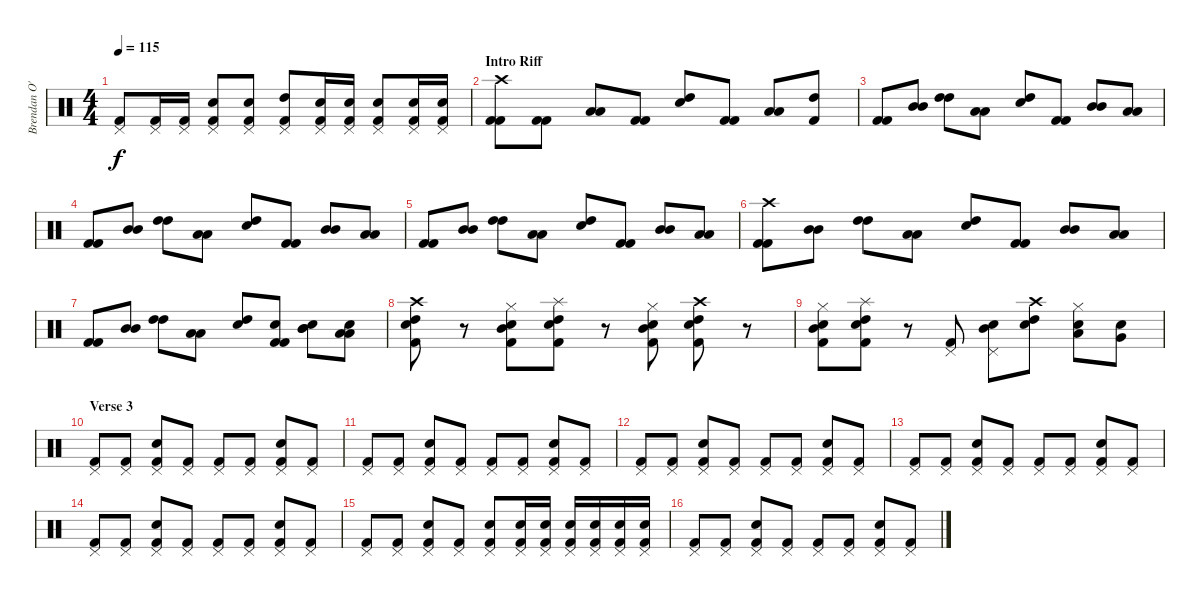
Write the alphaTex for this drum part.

\track ("Brendan O'Neill" "Brendan O'") {instrument percussion}
\staff {score}
\articulation defaults
\ts (4 4)
\tempo 115
\clef neutral
\ks c
("Pedal Hi-Hat (hit)" "Kick (hit) 2").8{dy f} ("Pedal Hi-Hat (hit)" "Kick (hit) 2").16 ("Pedal Hi-Hat (hit)" "Kick (hit) 2").16 ("Pedal Hi-Hat (hit)" "Snare (hit) 2" "Kick (hit) 2").8 ("Pedal Hi-Hat (hit)" "Electric Snare (hit)" "Kick (hit) 2").8 ("Pedal Hi-Hat (hit)" "High Tom (hit)" "Kick (hit) 2").8 ("Pedal Hi-Hat (hit)" "Snare (hit) 2" "Kick (hit) 2").16 ("Pedal Hi-Hat (hit)" "Snare (hit) 2" "Kick (hit) 2").16 ("Pedal Hi-Hat (hit)" "Electric Snare (hit)" "Kick (hit) 2").8 ("Pedal Hi-Hat (hit)" "Snare (hit) 2" "Kick (hit) 2").16 ("Pedal Hi-Hat (hit)" "Snare (hit) 2" "Kick (hit) 2").16 |
\section ("" "Intro Riff")
("Crash high (hit)" "Kick (hit) 2" "Kick (hit) 2").8 ("Kick (hit) 2" "Kick (hit) 2").8 ("Low Tom (hit)" "Low Tom (hit)").8 ("Kick (hit) 2" "Kick (hit) 2").8 ("High Tom (hit)" "Electric Snare (hit)").8 ("Kick (hit) 2" "Kick (hit) 2").8 ("Low Tom (hit)" "Low Tom (hit)").8 ("High Tom (hit)" "Kick (hit) 2").8 |
("Kick (hit) 2" "Kick (hit) 2").8 ("Mid Tom (hit)" "Mid Tom (hit)").8 ("High Tom (hit)" "High Tom (hit)").8 ("Low Tom (hit)" "Low Tom (hit)").8 ("High Tom (hit)" "Electric Snare (hit)").8 ("Kick (hit) 2" "Kick (hit) 2").8 ("Mid Tom (hit)" "Mid Tom (hit)").8 ("Low Tom (hit)" "Low Tom (hit)").8 |
("Kick (hit) 2" "Kick (hit) 2").8 ("Mid Tom (hit)" "Mid Tom (hit)").8 ("High Tom (hit)" "High Tom (hit)").8 ("Low Tom (hit)" "Low Tom (hit)").8 ("High Tom (hit)" "Electric Snare (hit)").8 ("Kick (hit) 2" "Kick (hit) 2").8 ("Mid Tom (hit)" "Mid Tom (hit)").8 ("Low Tom (hit)" "Low Tom (hit)").8 |
("Kick (hit) 2" "Kick (hit) 2").8 ("Mid Tom (hit)" "Mid Tom (hit)").8 ("High Tom (hit)" "High Tom (hit)").8 ("Low Tom (hit)" "Low Tom (hit)").8 ("High Tom (hit)" "Electric Snare (hit)").8 ("Kick (hit) 2" "Kick (hit) 2").8 ("Mid Tom (hit)" "Mid Tom (hit)").8 ("Low Tom (hit)" "Low Tom (hit)").8 |
("Crash high (hit)" "Kick (hit) 2" "Kick (hit) 2").8 ("Mid Tom (hit)" "Mid Tom (hit)").8 ("High Tom (hit)" "High Tom (hit)").8 ("Low Tom (hit)" "Low Tom (hit)").8 ("High Tom (hit)" "Electric Snare (hit)").8 ("Kick (hit) 2" "Kick (hit) 2").8 ("Mid Tom (hit)" "Mid Tom (hit)").8 ("Low Tom (hit)" "Low Tom (hit)").8 |
("Kick (hit) 2" "Kick (hit) 2").8 ("Mid Tom (hit)" "Mid Tom (hit)").8 ("High Tom (hit)" "High Tom (hit)").8 ("Low Tom (hit)" "Low Tom (hit)").8 ("High Tom (hit)" "Electric Snare (hit)").8 ("Electric Snare (hit)" "Kick (hit) 2" "Kick (hit) 2").8 ("Snare (hit) 2" "Mid Tom (hit)" "Mid Tom (hit)").8 ("Electric Snare (hit)" "Low Tom (hit)" "Low Tom (hit)").8 |
("Crash high (hit)" "High Tom (hit)" "Electric Snare (hit)" "Kick (hit) 2").8 r.8 ("Hi-Hat (closed)" "Mid Tom (hit)" "Snare (hit) 2" "Kick (hit) 2").8 ("Splash (hit)" "High Tom (hit)" "Electric Snare (hit)" "Kick (hit) 2").8 r.8 ("Hi-Hat (closed)" "Mid Tom (hit)" "Snare (hit) 2" "Kick (hit) 2").8 ("Crash high (hit)" "High Tom (hit)" "Electric Snare (hit)" "Kick (hit) 2").8 r.8 |
("Hi-Hat (closed)" "Mid Tom (hit)" "Snare (hit) 2" "Kick (hit) 2").8 ("Splash (hit)" "High Tom (hit)" "Electric Snare (hit)" "Kick (hit) 2").8 r.8 ("Pedal Hi-Hat (hit)" "Kick (hit) 2").8 ("Pedal Hi-Hat (hit)" "Mid Tom (hit)" "Electric Snare (hit)").8 ("Crash high (hit)" "High Tom (hit)" "Electric Snare (hit)").8 ("Hi-Hat (closed)" "Low Tom (hit)" "Snare (hit) 2").8 ("Very Low Tom (hit)" "Snare (hit) 2").8 |
\section ("" "Verse 3")
("Pedal Hi-Hat (hit)" "Kick (hit) 2").8 ("Pedal Hi-Hat (hit)" "Kick (hit) 2").8 ("Pedal Hi-Hat (hit)" "Snare (hit) 2" "Kick (hit) 2").8 ("Pedal Hi-Hat (hit)" "Kick (hit) 2").8 ("Pedal Hi-Hat (hit)" "Kick (hit) 2").8 ("Pedal Hi-Hat (hit)" "Kick (hit) 2").8 ("Pedal Hi-Hat (hit)" "Snare (hit) 2" "Kick (hit) 2").8 ("Pedal Hi-Hat (hit)" "Kick (hit) 2").8 |
("Pedal Hi-Hat (hit)" "Kick (hit) 2").8 ("Pedal Hi-Hat (hit)" "Kick (hit) 2").8 ("Pedal Hi-Hat (hit)" "Snare (hit) 2" "Kick (hit) 2").8 ("Pedal Hi-Hat (hit)" "Kick (hit) 2").8 ("Pedal Hi-Hat (hit)" "Kick (hit) 2").8 ("Pedal Hi-Hat (hit)" "Kick (hit) 2").8 ("Pedal Hi-Hat (hit)" "Snare (hit) 2" "Kick (hit) 2").8 ("Pedal Hi-Hat (hit)" "Kick (hit) 2").8 |
("Pedal Hi-Hat (hit)" "Kick (hit) 2").8 ("Pedal Hi-Hat (hit)" "Kick (hit) 2").8 ("Pedal Hi-Hat (hit)" "Snare (hit) 2" "Kick (hit) 2").8 ("Pedal Hi-Hat (hit)" "Kick (hit) 2").8 ("Pedal Hi-Hat (hit)" "Kick (hit) 2").8 ("Pedal Hi-Hat (hit)" "Kick (hit) 2").8 ("Pedal Hi-Hat (hit)" "Snare (hit) 2" "Kick (hit) 2").8 ("Pedal Hi-Hat (hit)" "Kick (hit) 2").8 |
("Pedal Hi-Hat (hit)" "Kick (hit) 2").8 ("Pedal Hi-Hat (hit)" "Kick (hit) 2").8 ("Pedal Hi-Hat (hit)" "Snare (hit) 2" "Kick (hit) 2").8 ("Pedal Hi-Hat (hit)" "Kick (hit) 2").8 ("Pedal Hi-Hat (hit)" "Kick (hit) 2").8 ("Pedal Hi-Hat (hit)" "Kick (hit) 2").8 ("Pedal Hi-Hat (hit)" "Snare (hit) 2" "Kick (hit) 2").8 ("Pedal Hi-Hat (hit)" "Kick (hit) 2").8 |
("Pedal Hi-Hat (hit)" "Kick (hit) 2").8 ("Pedal Hi-Hat (hit)" "Kick (hit) 2").8 ("Pedal Hi-Hat (hit)" "Snare (hit) 2" "Kick (hit) 2").8 ("Pedal Hi-Hat (hit)" "Kick (hit) 2").8 ("Pedal Hi-Hat (hit)" "Kick (hit) 2").8 ("Pedal Hi-Hat (hit)" "Kick (hit) 2").8 ("Pedal Hi-Hat (hit)" "Snare (hit) 2" "Kick (hit) 2").8 ("Pedal Hi-Hat (hit)" "Kick (hit) 2").8 |
("Pedal Hi-Hat (hit)" "Kick (hit) 2").8 ("Pedal Hi-Hat (hit)" "Kick (hit) 2").8 ("Pedal Hi-Hat (hit)" "Snare (hit) 2" "Kick (hit) 2").8 ("Pedal Hi-Hat (hit)" "Kick (hit) 2").8 ("Pedal Hi-Hat (hit)" "Snare (hit) 2" "Kick (hit) 2").8 ("Pedal Hi-Hat (hit)" "Electric Snare (hit)" "Kick (hit) 2").16 ("Pedal Hi-Hat (hit)" "Electric Snare (hit)" "Kick (hit) 2").16 ("Pedal Hi-Hat (hit)" "Snare (hit) 2" "Kick (hit) 2").16 ("Pedal Hi-Hat (hit)" "Snare (hit) 2" "Kick (hit) 2").16 ("Pedal Hi-Hat (hit)" "Snare (hit) 2" "Kick (hit) 2").16 ("Pedal Hi-Hat (hit)" "Snare (hit) 2" "Kick (hit) 2").16 |
("Pedal Hi-Hat (hit)" "Kick (hit) 2").8 ("Pedal Hi-Hat (hit)" "Kick (hit) 2").8 ("Pedal Hi-Hat (hit)" "Snare (hit) 2" "Kick (hit) 2").8 ("Pedal Hi-Hat (hit)" "Kick (hit) 2").8 ("Pedal Hi-Hat (hit)" "Kick (hit) 2").8 ("Pedal Hi-Hat (hit)" "Kick (hit) 2").8 ("Pedal Hi-Hat (hit)" "Snare (hit) 2" "Kick (hit) 2").8 ("Pedal Hi-Hat (hit)" "Kick (hit) 2").8
